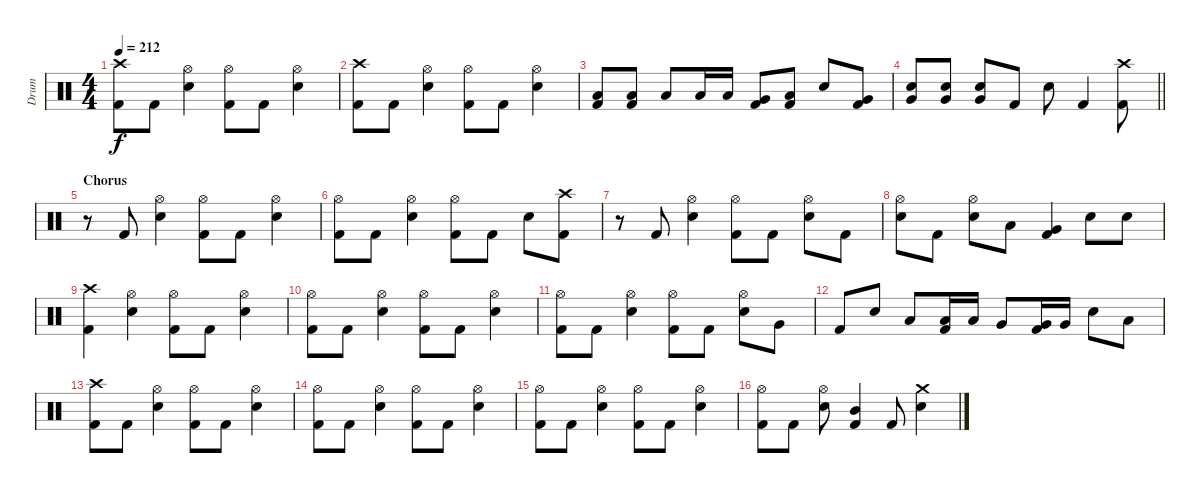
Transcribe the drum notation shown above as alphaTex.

\track ("Drum" "Drum") {instrument percussion}
\staff {score}
\articulation defaults
\ts (4 4)
\tempo 212
\clef neutral
\ks c
("Crash high (hit)" "Kick (hit) 2").8{dy f} "Kick (hit) 2".8 ("Hi-Hat (open)" "Electric Snare (hit)").4 ("Hi-Hat (open)" "Kick (hit) 2").8 "Kick (hit) 2".8 ("Hi-Hat (open)" "Electric Snare (hit)").4 |
("Crash high (hit)" "Kick (hit) 2").8 "Kick (hit) 2".8 ("Hi-Hat (open)" "Electric Snare (hit)").4 ("Hi-Hat (open)" "Kick (hit) 2").8 "Kick (hit) 2".8 ("Hi-Hat (open)" "Electric Snare (hit)").4 |
("Low Tom (hit)" "Kick (hit) 2").8 ("Low Tom (hit)" "Kick (hit) 2").8 "Low Tom (hit)".8 "Low Tom (hit)".16 "Low Tom (hit)".16 ("Very Low Tom (hit)" "Kick (hit) 2").8 ("Low Tom (hit)" "Kick (hit) 2").8 "Electric Snare (hit)".8 ("Very Low Tom (hit)" "Kick (hit) 2").8 |
\barLineRight lightlight
("Very Low Tom (hit)" "Electric Snare (hit)").8 ("Very Low Tom (hit)" "Electric Snare (hit)").8 ("Very Low Tom (hit)" "Electric Snare (hit)").8 "Kick (hit) 2".8 "Electric Snare (hit)".8 "Kick (hit) 2".4 ("Crash high (hit)" "Kick (hit) 2").8 |
\section ("" "Chorus")
r.8 "Kick (hit) 2".8 ("Hi-Hat (open)" "Electric Snare (hit)").4 ("Hi-Hat (open)" "Kick (hit) 2").8 "Kick (hit) 2".8 ("Hi-Hat (open)" "Electric Snare (hit)").4 |
("Hi-Hat (open)" "Kick (hit) 2").8 "Kick (hit) 2".8 ("Hi-Hat (open)" "Electric Snare (hit)").4 ("Hi-Hat (open)" "Kick (hit) 2").8 "Kick (hit) 2".8 "Electric Snare (hit)".8 ("Crash high (hit)" "Kick (hit) 2").8 |
r.8 "Kick (hit) 2".8 ("Hi-Hat (open)" "Electric Snare (hit)").4 ("Hi-Hat (open)" "Kick (hit) 2").8 "Kick (hit) 2".8 ("Hi-Hat (open)" "Electric Snare (hit)").8 "Kick (hit) 2".8 |
("Hi-Hat (open)" "Electric Snare (hit)").8 "Kick (hit) 2".8 ("Hi-Hat (open)" "Electric Snare (hit)").8 "Low Tom (hit)".8 ("Very Low Tom (hit)" "Kick (hit) 2").4 "Electric Snare (hit)".8 "Electric Snare (hit)".8 |
("Crash high (hit)" "Kick (hit) 2").4 ("Hi-Hat (open)" "Electric Snare (hit)").4 ("Hi-Hat (open)" "Kick (hit) 2").8 "Kick (hit) 2".8 ("Hi-Hat (open)" "Electric Snare (hit)").4 |
("Hi-Hat (open)" "Kick (hit) 2").8 "Kick (hit) 2".8 ("Hi-Hat (open)" "Electric Snare (hit)").4 ("Hi-Hat (open)" "Kick (hit) 2").8 "Kick (hit) 2".8 ("Hi-Hat (open)" "Electric Snare (hit)").4 |
("Hi-Hat (open)" "Kick (hit) 2").8 "Kick (hit) 2".8 ("Hi-Hat (open)" "Electric Snare (hit)").4 ("Hi-Hat (open)" "Kick (hit) 2").8 "Kick (hit) 2".8 ("Hi-Hat (open)" "Electric Snare (hit)").8 "Very Low Tom (hit)".8 |
"Kick (hit) 2".8 "Electric Snare (hit)".8 "Low Tom (hit)".8 ("Low Tom (hit)" "Kick (hit) 2").16 "Low Tom (hit)".16 "Very Low Tom (hit)".8 ("Very Low Tom (hit)" "Kick (hit) 2").16 "Very Low Tom (hit)".16 "Electric Snare (hit)".8 "Low Tom (hit)".8 |
("Crash high (hit)" "Kick (hit) 2").8 "Kick (hit) 2".8 ("Hi-Hat (open)" "Electric Snare (hit)").4 ("Hi-Hat (open)" "Kick (hit) 2").8 "Kick (hit) 2".8 ("Hi-Hat (open)" "Electric Snare (hit)").4 |
("Hi-Hat (open)" "Kick (hit) 2").8 "Kick (hit) 2".8 ("Hi-Hat (open)" "Electric Snare (hit)").4 ("Hi-Hat (open)" "Kick (hit) 2").8 "Kick (hit) 2".8 ("Hi-Hat (open)" "Electric Snare (hit)").4 |
("Hi-Hat (open)" "Kick (hit) 2").8 "Kick (hit) 2".8 ("Hi-Hat (open)" "Electric Snare (hit)").4 ("Hi-Hat (open)" "Kick (hit) 2").8 "Kick (hit) 2".8 ("Hi-Hat (open)" "Electric Snare (hit)").4 |
("Hi-Hat (open)" "Kick (hit) 2").8 "Kick (hit) 2".8 ("Hi-Hat (open)" "Electric Snare (hit)").8 ("Mid Tom (hit)" "Kick (hit) 2").4 "Kick (hit) 2".8 ("Crash medium (hit)" "Electric Snare (hit)").4
